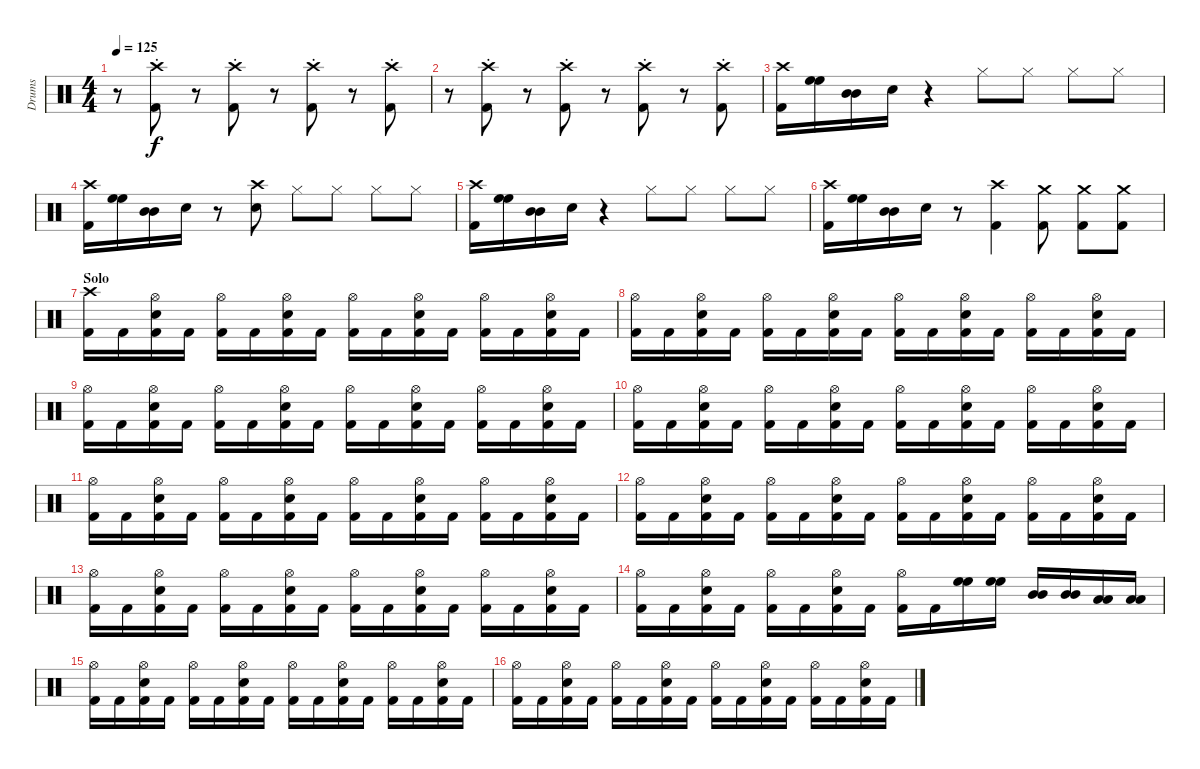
\track ("Drums" "Drums") {instrument percussion}
\staff {score}
\articulation defaults
\ts (4 4)
\tempo 125
\clef neutral
\ks c
r.8{dy f} ("Crash high (hit)"{st} "Kick (hit) 2").8 r.8 ("Crash high (hit)"{st} "Kick (hit) 2").8 r.8 ("Crash high (hit)"{st} "Kick (hit) 2").8 r.8 ("Crash high (hit)"{st} "Kick (hit) 2").8 |
r.8 ("Crash high (hit)"{st} "Kick (hit) 2").8 r.8 ("Crash high (hit)"{st} "Kick (hit) 2").8 r.8 ("Crash high (hit)"{st} "Kick (hit) 2").8 r.8 ("Crash high (hit)"{st} "Kick (hit) 2").8 |
("Crash high (hit)" "Kick (hit) 2").16 ("High Floor Tom (hit)" "High Floor Tom (hit)").16 ("Mid Tom (hit)" "Mid Tom (hit)").16 "Snare (hit) 2".16 r.4 "Hi-Hat (closed)".8 "Hi-Hat (closed)".8 "Hi-Hat (closed)".8 "Hi-Hat (closed)".8 |
("Crash high (hit)" "Kick (hit) 2").16 ("High Floor Tom (hit)" "High Floor Tom (hit)").16 ("Mid Tom (hit)" "Mid Tom (hit)").16 "Snare (hit) 2".16 r.8 ("Crash high (hit)" "Snare (hit) 2").8 "Hi-Hat (closed)".8 "Hi-Hat (closed)".8 "Hi-Hat (closed)".8 "Hi-Hat (closed)".8 |
("Crash high (hit)" "Kick (hit) 2").16 ("High Floor Tom (hit)" "High Floor Tom (hit)").16 ("Mid Tom (hit)" "Mid Tom (hit)").16 "Snare (hit) 2".16 r.4 "Hi-Hat (closed)".8 "Hi-Hat (closed)".8 "Hi-Hat (closed)".8 "Hi-Hat (closed)".8 |
("Crash high (hit)" "Kick (hit) 2").16 ("High Floor Tom (hit)" "High Floor Tom (hit)").16 ("Mid Tom (hit)" "Mid Tom (hit)").16 "Snare (hit) 2".16 r.8 ("Crash high (hit)" "Kick (hit) 2").4 ("Crash medium (hit)" "Kick (hit) 2").8 ("Crash medium (hit)" "Kick (hit) 2").8 ("Crash medium (hit)" "Kick (hit) 2").8 |
\section ("" "Solo")
("Crash high (hit)" "Kick (hit) 2").16 "Kick (hit) 2".16 ("Hi-Hat (open)" "Snare (hit) 2" "Kick (hit) 2").16 "Kick (hit) 2".16 ("Hi-Hat (open)" "Kick (hit) 2").16 "Kick (hit) 2".16 ("Hi-Hat (open)" "Snare (hit) 2" "Kick (hit) 2").16 "Kick (hit) 2".16 ("Hi-Hat (open)" "Kick (hit) 2").16 "Kick (hit) 2".16 ("Hi-Hat (open)" "Snare (hit) 2" "Kick (hit) 2").16 "Kick (hit) 2".16 ("Hi-Hat (open)" "Kick (hit) 2").16 "Kick (hit) 2".16 ("Hi-Hat (open)" "Snare (hit) 2" "Kick (hit) 2").16 "Kick (hit) 2".16 |
("Hi-Hat (open)" "Kick (hit) 2").16 "Kick (hit) 2".16 ("Hi-Hat (open)" "Snare (hit) 2" "Kick (hit) 2").16 "Kick (hit) 2".16 ("Hi-Hat (open)" "Kick (hit) 2").16 "Kick (hit) 2".16 ("Hi-Hat (open)" "Snare (hit) 2" "Kick (hit) 2").16 "Kick (hit) 2".16 ("Hi-Hat (open)" "Kick (hit) 2").16 "Kick (hit) 2".16 ("Hi-Hat (open)" "Snare (hit) 2" "Kick (hit) 2").16 "Kick (hit) 2".16 ("Hi-Hat (open)" "Kick (hit) 2").16 "Kick (hit) 2".16 ("Hi-Hat (open)" "Snare (hit) 2" "Kick (hit) 2").16 "Kick (hit) 2".16 |
("Hi-Hat (open)" "Kick (hit) 2").16 "Kick (hit) 2".16 ("Hi-Hat (open)" "Snare (hit) 2" "Kick (hit) 2").16 "Kick (hit) 2".16 ("Hi-Hat (open)" "Kick (hit) 2").16 "Kick (hit) 2".16 ("Hi-Hat (open)" "Snare (hit) 2" "Kick (hit) 2").16 "Kick (hit) 2".16 ("Hi-Hat (open)" "Kick (hit) 2").16 "Kick (hit) 2".16 ("Hi-Hat (open)" "Snare (hit) 2" "Kick (hit) 2").16 "Kick (hit) 2".16 ("Hi-Hat (open)" "Kick (hit) 2").16 "Kick (hit) 2".16 ("Hi-Hat (open)" "Snare (hit) 2" "Kick (hit) 2").16 "Kick (hit) 2".16 |
("Hi-Hat (open)" "Kick (hit) 2").16 "Kick (hit) 2".16 ("Hi-Hat (open)" "Snare (hit) 2" "Kick (hit) 2").16 "Kick (hit) 2".16 ("Hi-Hat (open)" "Kick (hit) 2").16 "Kick (hit) 2".16 ("Hi-Hat (open)" "Snare (hit) 2" "Kick (hit) 2").16 "Kick (hit) 2".16 ("Hi-Hat (open)" "Kick (hit) 2").16 "Kick (hit) 2".16 ("Hi-Hat (open)" "Snare (hit) 2" "Kick (hit) 2").16 "Kick (hit) 2".16 ("Hi-Hat (open)" "Kick (hit) 2").16 "Kick (hit) 2".16 ("Hi-Hat (open)" "Snare (hit) 2" "Kick (hit) 2").16 "Kick (hit) 2".16 |
("Hi-Hat (open)" "Kick (hit) 2").16 "Kick (hit) 2".16 ("Hi-Hat (open)" "Snare (hit) 2" "Kick (hit) 2").16 "Kick (hit) 2".16 ("Hi-Hat (open)" "Kick (hit) 2").16 "Kick (hit) 2".16 ("Hi-Hat (open)" "Snare (hit) 2" "Kick (hit) 2").16 "Kick (hit) 2".16 ("Hi-Hat (open)" "Kick (hit) 2").16 "Kick (hit) 2".16 ("Hi-Hat (open)" "Snare (hit) 2" "Kick (hit) 2").16 "Kick (hit) 2".16 ("Hi-Hat (open)" "Kick (hit) 2").16 "Kick (hit) 2".16 ("Hi-Hat (open)" "Snare (hit) 2" "Kick (hit) 2").16 "Kick (hit) 2".16 |
("Hi-Hat (open)" "Kick (hit) 2").16 "Kick (hit) 2".16 ("Hi-Hat (open)" "Snare (hit) 2" "Kick (hit) 2").16 "Kick (hit) 2".16 ("Hi-Hat (open)" "Kick (hit) 2").16 "Kick (hit) 2".16 ("Hi-Hat (open)" "Snare (hit) 2" "Kick (hit) 2").16 "Kick (hit) 2".16 ("Hi-Hat (open)" "Kick (hit) 2").16 "Kick (hit) 2".16 ("Hi-Hat (open)" "Snare (hit) 2" "Kick (hit) 2").16 "Kick (hit) 2".16 ("Hi-Hat (open)" "Kick (hit) 2").16 "Kick (hit) 2".16 ("Hi-Hat (open)" "Snare (hit) 2" "Kick (hit) 2").16 "Kick (hit) 2".16 |
("Hi-Hat (open)" "Kick (hit) 2").16 "Kick (hit) 2".16 ("Hi-Hat (open)" "Snare (hit) 2" "Kick (hit) 2").16 "Kick (hit) 2".16 ("Hi-Hat (open)" "Kick (hit) 2").16 "Kick (hit) 2".16 ("Hi-Hat (open)" "Snare (hit) 2" "Kick (hit) 2").16 "Kick (hit) 2".16 ("Hi-Hat (open)" "Kick (hit) 2").16 "Kick (hit) 2".16 ("Hi-Hat (open)" "Snare (hit) 2" "Kick (hit) 2").16 "Kick (hit) 2".16 ("Hi-Hat (open)" "Kick (hit) 2").16 "Kick (hit) 2".16 ("Hi-Hat (open)" "Snare (hit) 2" "Kick (hit) 2").16 "Kick (hit) 2".16 |
("Hi-Hat (open)" "Kick (hit) 2").16 "Kick (hit) 2".16 ("Hi-Hat (open)" "Snare (hit) 2" "Kick (hit) 2").16 "Kick (hit) 2".16 ("Hi-Hat (open)" "Kick (hit) 2").16 "Kick (hit) 2".16 ("Hi-Hat (open)" "Snare (hit) 2" "Kick (hit) 2").16 "Kick (hit) 2".16 ("Hi-Hat (open)" "Kick (hit) 2").16 "Kick (hit) 2".16 ("High Floor Tom (hit)" "High Floor Tom (hit)").16 ("High Floor Tom (hit)" "High Floor Tom (hit)").16 ("Mid Tom (hit)" "Mid Tom (hit)").16 ("Mid Tom (hit)" "Mid Tom (hit)").16 ("Low Tom (hit)" "Low Tom (hit)").16 ("Low Tom (hit)" "Low Tom (hit)").16 |
("Hi-Hat (open)" "Kick (hit) 2").16 "Kick (hit) 2".16 ("Hi-Hat (open)" "Snare (hit) 2" "Kick (hit) 2").16 "Kick (hit) 2".16 ("Hi-Hat (open)" "Kick (hit) 2").16 "Kick (hit) 2".16 ("Hi-Hat (open)" "Snare (hit) 2" "Kick (hit) 2").16 "Kick (hit) 2".16 ("Hi-Hat (open)" "Kick (hit) 2").16 "Kick (hit) 2".16 ("Hi-Hat (open)" "Snare (hit) 2" "Kick (hit) 2").16 "Kick (hit) 2".16 ("Hi-Hat (open)" "Kick (hit) 2").16 "Kick (hit) 2".16 ("Hi-Hat (open)" "Snare (hit) 2" "Kick (hit) 2").16 "Kick (hit) 2".16 |
("Hi-Hat (open)" "Kick (hit) 2").16 "Kick (hit) 2".16 ("Hi-Hat (open)" "Snare (hit) 2" "Kick (hit) 2").16 "Kick (hit) 2".16 ("Hi-Hat (open)" "Kick (hit) 2").16 "Kick (hit) 2".16 ("Hi-Hat (open)" "Snare (hit) 2" "Kick (hit) 2").16 "Kick (hit) 2".16 ("Hi-Hat (open)" "Kick (hit) 2").16 "Kick (hit) 2".16 ("Hi-Hat (open)" "Snare (hit) 2" "Kick (hit) 2").16 "Kick (hit) 2".16 ("Hi-Hat (open)" "Kick (hit) 2").16 "Kick (hit) 2".16 ("Hi-Hat (open)" "Snare (hit) 2" "Kick (hit) 2").16 "Kick (hit) 2".16
